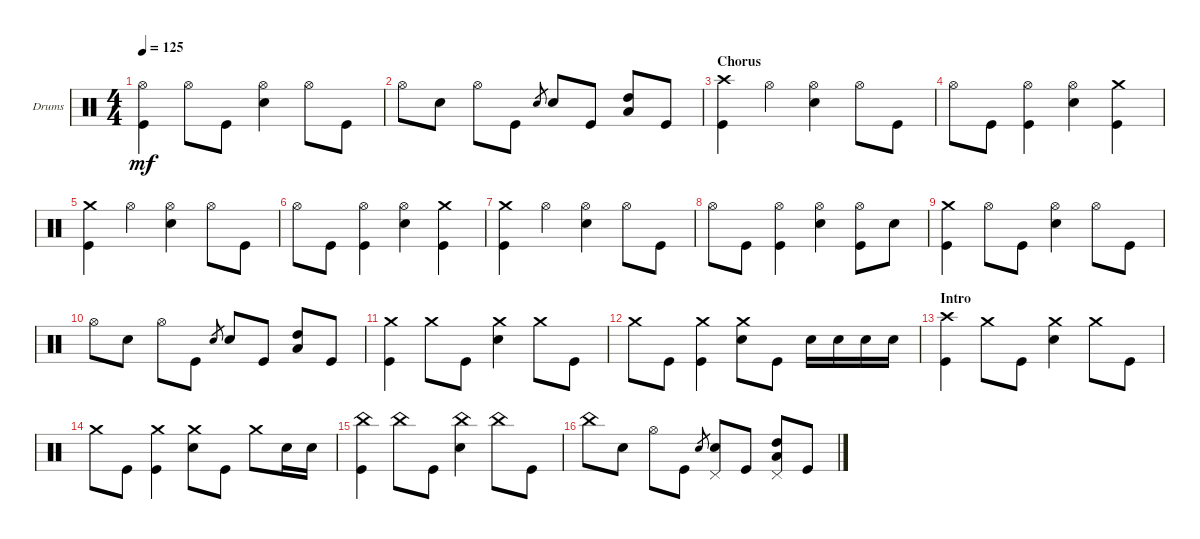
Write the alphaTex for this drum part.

\bracketExtendMode groupsimilarinstruments
\firstSystemTrackNameOrientation horizontal
\otherSystemsTrackNameOrientation horizontal
\track ("Drums (chad ...)" "Drums") {instrument percussion}
\staff {score}
\articulation defaults
\ts (4 4)
\tempo 125
\clef neutral
\ks c
("Hi-Hat (open)" "Kick (hit)").4{dy mf} "Hi-Hat (open)".8 "Kick (hit)".8 ("Hi-Hat (open)" "Snare (hit) 2").4 "Hi-Hat (open)".8 "Kick (hit)".8 |
"Hi-Hat (open)".8 "Snare (hit) 2".8 "Hi-Hat (open)".8 "Kick (hit)".8 "Snare (hit) 2".8{gr} "Snare (hit) 2".8 "Kick (hit)".8 ("Low Tom (hit)" "High Tom (hit)").8 "Kick (hit)".8 |
\section ("" "Chorus")
("Kick (hit)" "Crash high (hit)").4 "Hi-Hat (open)".4 ("Hi-Hat (open)" "Snare (hit) 2").4 "Hi-Hat (open)".8 "Kick (hit)".8 |
"Hi-Hat (open)".8 "Kick (hit)".8 ("Kick (hit)" "Hi-Hat (open)").4 ("Snare (hit) 2" "Hi-Hat (open)").4 ("Crash medium (hit)" "Kick (hit)").4 |
("Kick (hit)" "Crash medium (hit)").4 "Hi-Hat (open)".4 ("Hi-Hat (open)" "Snare (hit) 2").4 "Hi-Hat (open)".8 "Kick (hit)".8 |
"Hi-Hat (open)".8 "Kick (hit)".8 ("Kick (hit)" "Hi-Hat (open)").4 ("Snare (hit) 2" "Hi-Hat (open)").4 ("Crash medium (hit)" "Kick (hit)").4 |
("Kick (hit)" "Crash medium (hit)").4 "Hi-Hat (open)".4 ("Hi-Hat (open)" "Snare (hit) 2").4 "Hi-Hat (open)".8 "Kick (hit)".8 |
"Hi-Hat (open)".8 "Kick (hit)".8 ("Kick (hit)" "Hi-Hat (open)").4 ("Snare (hit) 2" "Hi-Hat (open)").4 ("Kick (hit)" "Hi-Hat (open)").8 "Snare (hit) 2".8 |
("Crash medium (hit)" "Kick (hit)").4 "Hi-Hat (open)".8 "Kick (hit)".8 ("Hi-Hat (open)" "Snare (hit) 2").4 "Hi-Hat (open)".8 "Kick (hit)".8 |
"Hi-Hat (open)".8 "Snare (hit) 2".8 "Hi-Hat (open)".8 "Kick (hit)".8 "Snare (hit) 2".8{gr} "Snare (hit) 2".8 "Kick (hit)".8 ("Low Tom (hit)" "High Tom (hit)").8 "Kick (hit)".8 |
("Kick (hit)" "Crash medium (hit)").4 "Crash medium (hit)".8 "Kick (hit)".8 ("Crash medium (hit)" "Snare (hit) 2").4 "Crash medium (hit)".8 "Kick (hit)".8 |
"Crash medium (hit)".8 "Kick (hit)".8 ("Crash medium (hit)" "Kick (hit)").4 ("Snare (hit) 2" "Crash medium (hit)").8 "Kick (hit)".8 "Snare (hit) 2".16 "Snare (hit) 2".16 "Snare (hit) 2".16 "Snare (hit) 2".16 |
\section ("" "Intro")
("Crash high (hit)" "Kick (hit)").4 "Crash medium (hit)".8 "Kick (hit)".8 ("Crash medium (hit)" "Snare (hit) 2").4 "Crash medium (hit)".8 "Kick (hit)".8 |
"Crash medium (hit)".8 "Kick (hit)".8 ("Kick (hit)" "Crash medium (hit)").4 ("Crash medium (hit)" "Snare (hit) 2").8 "Kick (hit)".8 "Crash medium (hit)".8 "Snare (hit) 2".16 "Snare (hit) 2".16 |
("Kick (hit)" "China (hit)").4 "China (hit)".8 "Kick (hit)".8 ("Snare (hit) 2" "China (hit)").4 "China (hit)".8 "Kick (hit)".8 |
"China (hit)".8 "Snare (hit) 2".8 "Hi-Hat (open)".8 "Kick (hit)".8 "Snare (hit) 2".8{gr} ("Snare (hit) 2" "Pedal Hi-Hat (hit)").8 "Kick (hit)".8 ("Low Tom (hit)" "High Tom (hit)" "Pedal Hi-Hat (hit)").8 "Kick (hit)".8
